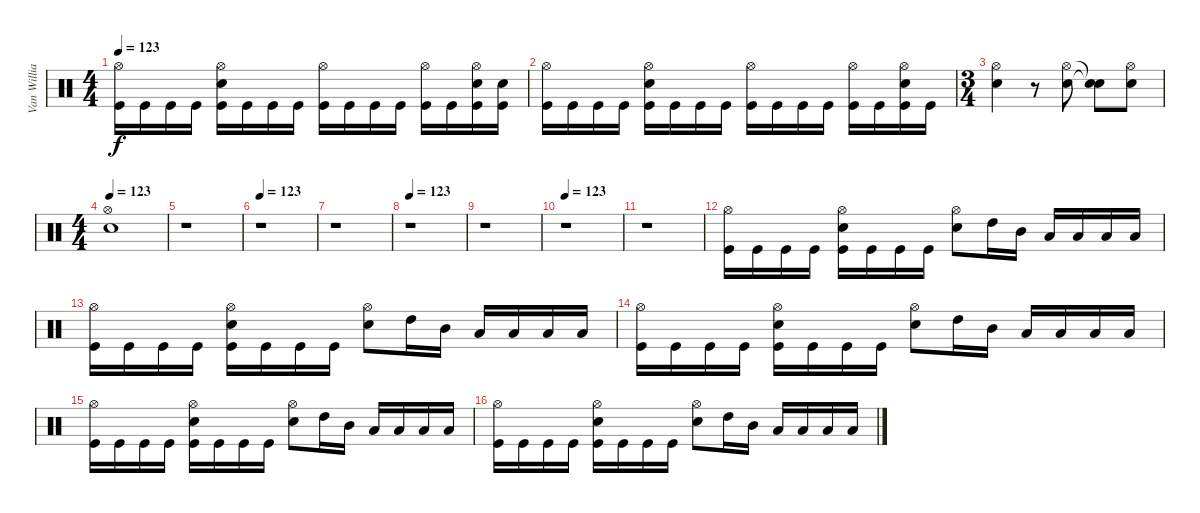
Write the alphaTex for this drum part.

\track ("Van Williams" "Van Willia") {instrument percussion}
\staff {score}
\articulation defaults
\ts (4 4)
\tempo 123
\clef neutral
\ks c
("Hi-Hat (open)" "Kick (hit)").16{dy f} "Kick (hit)".16 "Kick (hit)".16 "Kick (hit)".16 ("Hi-Hat (open)" "Electric Snare (hit)" "Kick (hit)").16 "Kick (hit)".16 "Kick (hit)".16 "Kick (hit)".16 ("Hi-Hat (open)" "Kick (hit)").16 "Kick (hit)".16 "Kick (hit)".16 "Kick (hit)".16 ("Hi-Hat (open)" "Kick (hit)").16 "Kick (hit)".16 ("Hi-Hat (open)" "Electric Snare (hit)" "Kick (hit)").16 ("Electric Snare (hit)" "Kick (hit)").16 |
("Hi-Hat (open)" "Kick (hit)").16 "Kick (hit)".16 "Kick (hit)".16 "Kick (hit)".16 ("Hi-Hat (open)" "Electric Snare (hit)" "Kick (hit)").16 "Kick (hit)".16 "Kick (hit)".16 "Kick (hit)".16 ("Hi-Hat (open)" "Kick (hit)").16 "Kick (hit)".16 "Kick (hit)".16 "Kick (hit)".16 ("Hi-Hat (open)" "Kick (hit)").16 "Kick (hit)".16 ("Hi-Hat (open)" "Electric Snare (hit)" "Kick (hit)").16 "Kick (hit)".16 |
\ts (3 4)
("Hi-Hat (open)" "Electric Snare (hit)").4 r.8 ("Hi-Hat (open)" "Electric Snare (hit)").8 ("Snare (hit)"{t} "Snare (hit)"{t}).8 ("Hi-Hat (open)" "Electric Snare (hit)").8 |
\ts (4 4)
\tempo 123
("Hi-Hat (open)" "Electric Snare (hit)").1 |
r.1 |
\tempo 123
r.1 |
r.1 |
\tempo 123
r.1 |
r.1 |
\tempo 123
r.1 |
r.1 |
("Hi-Hat (open)" "Kick (hit)").16 "Kick (hit)".16 "Kick (hit)".16 "Kick (hit)".16 ("Hi-Hat (open)" "Electric Snare (hit)" "Kick (hit)").16 "Kick (hit)".16 "Kick (hit)".16 "Kick (hit)".16 ("Hi-Hat (open)" "Electric Snare (hit)").8 "High Tom (hit)".16 "Mid Tom (hit)".16 "Low Tom (hit)".16 "Low Tom (hit)".16 "Low Tom (hit)".16 "Low Tom (hit)".16 |
("Hi-Hat (open)" "Kick (hit)").16 "Kick (hit)".16 "Kick (hit)".16 "Kick (hit)".16 ("Hi-Hat (open)" "Electric Snare (hit)" "Kick (hit)").16 "Kick (hit)".16 "Kick (hit)".16 "Kick (hit)".16 ("Hi-Hat (open)" "Electric Snare (hit)").8 "High Tom (hit)".16 "Mid Tom (hit)".16 "Low Tom (hit)".16 "Low Tom (hit)".16 "Low Tom (hit)".16 "Low Tom (hit)".16 |
("Hi-Hat (open)" "Kick (hit)").16 "Kick (hit)".16 "Kick (hit)".16 "Kick (hit)".16 ("Hi-Hat (open)" "Electric Snare (hit)" "Kick (hit)").16 "Kick (hit)".16 "Kick (hit)".16 "Kick (hit)".16 ("Hi-Hat (open)" "Electric Snare (hit)").8 "High Tom (hit)".16 "Mid Tom (hit)".16 "Low Tom (hit)".16 "Low Tom (hit)".16 "Low Tom (hit)".16 "Low Tom (hit)".16 |
("Hi-Hat (open)" "Kick (hit)").16 "Kick (hit)".16 "Kick (hit)".16 "Kick (hit)".16 ("Hi-Hat (open)" "Electric Snare (hit)" "Kick (hit)").16 "Kick (hit)".16 "Kick (hit)".16 "Kick (hit)".16 ("Hi-Hat (open)" "Electric Snare (hit)").8 "High Tom (hit)".16 "Mid Tom (hit)".16 "Low Tom (hit)".16 "Low Tom (hit)".16 "Low Tom (hit)".16 "Low Tom (hit)".16 |
("Hi-Hat (open)" "Kick (hit)").16 "Kick (hit)".16 "Kick (hit)".16 "Kick (hit)".16 ("Hi-Hat (open)" "Electric Snare (hit)" "Kick (hit)").16 "Kick (hit)".16 "Kick (hit)".16 "Kick (hit)".16 ("Hi-Hat (open)" "Electric Snare (hit)").8 "High Tom (hit)".16 "Mid Tom (hit)".16 "Low Tom (hit)".16 "Low Tom (hit)".16 "Low Tom (hit)".16 "Low Tom (hit)".16
